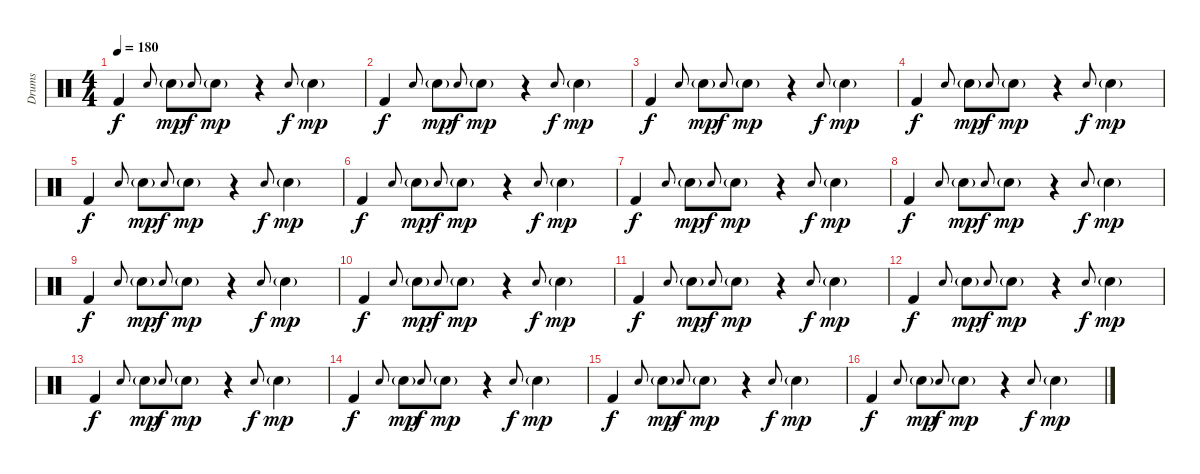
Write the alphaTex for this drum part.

\track ("Drums" "Drums") {instrument percussion}
\staff {score}
\articulation defaults
\ts (4 4)
\tempo 180
\clef neutral
\ks c "Kick (hit) 2".4{dy f} "Electric Snare (hit)".8{gr onbeat} "Electric Snare (hit)"{g}.8{dy mp} "Electric Snare (hit)".8{gr onbeat dy f} "Electric Snare (hit)"{g}.8{dy mp}
r.4 "Electric Snare (hit)".8{gr onbeat dy f} "Electric Snare (hit)"{g}.4{dy mp} |
"Kick (hit) 2".4{dy f} "Electric Snare (hit)".8{gr onbeat} "Electric Snare (hit)"{g}.8{dy mp} "Electric Snare (hit)".8{gr onbeat dy f} "Electric Snare (hit)"{g}.8{dy mp} r.4 "Electric Snare (hit)".8{gr onbeat dy f} "Electric Snare (hit)"{g}.4{dy mp} |
"Kick (hit) 2".4{dy f} "Electric Snare (hit)".8{gr onbeat} "Electric Snare (hit)"{g}.8{dy mp} "Electric Snare (hit)".8{gr onbeat dy f} "Electric Snare (hit)"{g}.8{dy mp} r.4 "Electric Snare (hit)".8{gr onbeat dy f} "Electric Snare (hit)"{g}.4{dy mp} |
"Kick (hit) 2".4{dy f} "Electric Snare (hit)".8{gr onbeat} "Electric Snare (hit)"{g}.8{dy mp} "Electric Snare (hit)".8{gr onbeat dy f} "Electric Snare (hit)"{g}.8{dy mp} r.4 "Electric Snare (hit)".8{gr onbeat dy f} "Electric Snare (hit)"{g}.4{dy mp} |
"Kick (hit) 2".4{dy f} "Electric Snare (hit)".8{gr onbeat} "Electric Snare (hit)"{g}.8{dy mp} "Electric Snare (hit)".8{gr onbeat dy f} "Electric Snare (hit)"{g}.8{dy mp} r.4 "Electric Snare (hit)".8{gr onbeat dy f} "Electric Snare (hit)"{g}.4{dy mp} |
"Kick (hit) 2".4{dy f} "Electric Snare (hit)".8{gr onbeat} "Electric Snare (hit)"{g}.8{dy mp} "Electric Snare (hit)".8{gr onbeat dy f} "Electric Snare (hit)"{g}.8{dy mp} r.4 "Electric Snare (hit)".8{gr onbeat dy f} "Electric Snare (hit)"{g}.4{dy mp} |
"Kick (hit) 2".4{dy f} "Electric Snare (hit)".8{gr onbeat} "Electric Snare (hit)"{g}.8{dy mp} "Electric Snare (hit)".8{gr onbeat dy f} "Electric Snare (hit)"{g}.8{dy mp} r.4 "Electric Snare (hit)".8{gr onbeat dy f} "Electric Snare (hit)"{g}.4{dy mp} |
"Kick (hit) 2".4{dy f} "Electric Snare (hit)".8{gr onbeat} "Electric Snare (hit)"{g}.8{dy mp} "Electric Snare (hit)".8{gr onbeat dy f} "Electric Snare (hit)"{g}.8{dy mp} r.4 "Electric Snare (hit)".8{gr onbeat dy f} "Electric Snare (hit)"{g}.4{dy mp} |
"Kick (hit) 2".4{dy f} "Electric Snare (hit)".8{gr onbeat} "Electric Snare (hit)"{g}.8{dy mp} "Electric Snare (hit)".8{gr onbeat dy f} "Electric Snare (hit)"{g}.8{dy mp} r.4 "Electric Snare (hit)".8{gr onbeat dy f} "Electric Snare (hit)"{g}.4{dy mp} |
"Kick (hit) 2".4{dy f} "Electric Snare (hit)".8{gr onbeat} "Electric Snare (hit)"{g}.8{dy mp} "Electric Snare (hit)".8{gr onbeat dy f} "Electric Snare (hit)"{g}.8{dy mp} r.4 "Electric Snare (hit)".8{gr onbeat dy f} "Electric Snare (hit)"{g}.4{dy mp} |
"Kick (hit) 2".4{dy f} "Electric Snare (hit)".8{gr onbeat} "Electric Snare (hit)"{g}.8{dy mp} "Electric Snare (hit)".8{gr onbeat dy f} "Electric Snare (hit)"{g}.8{dy mp} r.4 "Electric Snare (hit)".8{gr onbeat dy f} "Electric Snare (hit)"{g}.4{dy mp} |
"Kick (hit) 2".4{dy f} "Electric Snare (hit)".8{gr onbeat} "Electric Snare (hit)"{g}.8{dy mp} "Electric Snare (hit)".8{gr onbeat dy f} "Electric Snare (hit)"{g}.8{dy mp} r.4 "Electric Snare (hit)".8{gr onbeat dy f} "Electric Snare (hit)"{g}.4{dy mp} |
"Kick (hit) 2".4{dy f} "Electric Snare (hit)".8{gr onbeat} "Electric Snare (hit)"{g}.8{dy mp} "Electric Snare (hit)".8{gr onbeat dy f} "Electric Snare (hit)"{g}.8{dy mp} r.4 "Electric Snare (hit)".8{gr onbeat dy f} "Electric Snare (hit)"{g}.4{dy mp} |
"Kick (hit) 2".4{dy f} "Electric Snare (hit)".8{gr onbeat} "Electric Snare (hit)"{g}.8{dy mp} "Electric Snare (hit)".8{gr onbeat dy f} "Electric Snare (hit)"{g}.8{dy mp} r.4 "Electric Snare (hit)".8{gr onbeat dy f} "Electric Snare (hit)"{g}.4{dy mp} |
"Kick (hit) 2".4{dy f} "Electric Snare (hit)".8{gr onbeat} "Electric Snare (hit)"{g}.8{dy mp} "Electric Snare (hit)".8{gr onbeat dy f} "Electric Snare (hit)"{g}.8{dy mp} r.4 "Electric Snare (hit)".8{gr onbeat dy f} "Electric Snare (hit)"{g}.4{dy mp} |
"Kick (hit) 2".4{dy f} "Electric Snare (hit)".8{gr onbeat} "Electric Snare (hit)"{g}.8{dy mp} "Electric Snare (hit)".8{gr onbeat dy f} "Electric Snare (hit)"{g}.8{dy mp} r.4 "Electric Snare (hit)".8{gr onbeat dy f} "Electric Snare (hit)"{g}.4{dy mp}
